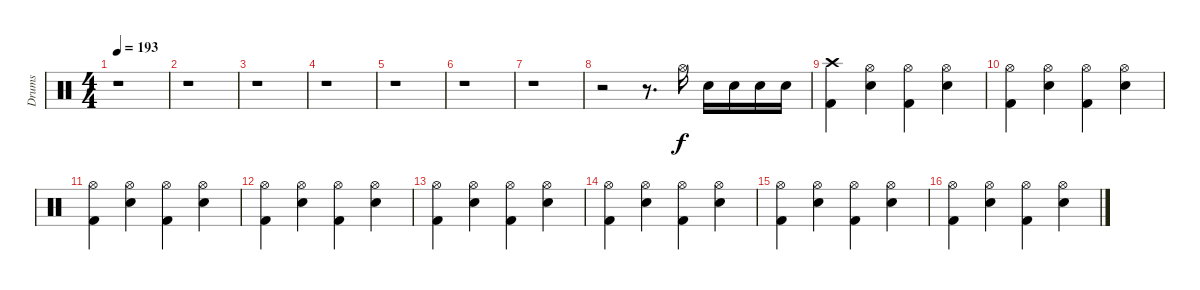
\track ("Drums" "Drums") {instrument percussion}
\staff {score}
\articulation defaults
\ts (4 4)
\tempo 193
\clef neutral
\ks c
r.1{dy f} |
r.1 |
r.1 |
r.1 |
r.1 |
r.1 |
r.1 |
r.2 r.8{d} "Hi-Hat (open)".16 "Electric Snare (hit)".16 "Electric Snare (hit)".16 "Electric Snare (hit)".16 "Electric Snare (hit)".16 |
("Crash high (hit)" "Kick (hit) 2").4 ("Hi-Hat (open)" "Electric Snare (hit)").4 ("Hi-Hat (open)" "Kick (hit) 2").4 ("Hi-Hat (open)" "Electric Snare (hit)").4 |
("Hi-Hat (open)" "Kick (hit) 2").4 ("Hi-Hat (open)" "Electric Snare (hit)").4 ("Hi-Hat (open)" "Kick (hit) 2").4 ("Hi-Hat (open)" "Electric Snare (hit)").4 |
("Hi-Hat (open)" "Kick (hit) 2").4 ("Hi-Hat (open)" "Electric Snare (hit)").4 ("Hi-Hat (open)" "Kick (hit) 2").4 ("Hi-Hat (open)" "Electric Snare (hit)").4 |
("Hi-Hat (open)" "Kick (hit) 2").4 ("Hi-Hat (open)" "Electric Snare (hit)").4 ("Hi-Hat (open)" "Kick (hit) 2").4 ("Hi-Hat (open)" "Electric Snare (hit)").4 |
("Hi-Hat (open)" "Kick (hit) 2").4 ("Hi-Hat (open)" "Electric Snare (hit)").4 ("Hi-Hat (open)" "Kick (hit) 2").4 ("Hi-Hat (open)" "Electric Snare (hit)").4 |
("Hi-Hat (open)" "Kick (hit) 2").4 ("Hi-Hat (open)" "Electric Snare (hit)").4 ("Hi-Hat (open)" "Kick (hit) 2").4 ("Hi-Hat (open)" "Electric Snare (hit)").4 |
("Hi-Hat (open)" "Kick (hit) 2").4 ("Hi-Hat (open)" "Electric Snare (hit)").4 ("Hi-Hat (open)" "Kick (hit) 2").4 ("Hi-Hat (open)" "Electric Snare (hit)").4 |
("Hi-Hat (open)" "Kick (hit) 2").4 ("Hi-Hat (open)" "Electric Snare (hit)").4 ("Hi-Hat (open)" "Kick (hit) 2").4 ("Hi-Hat (open)" "Electric Snare (hit)").4
